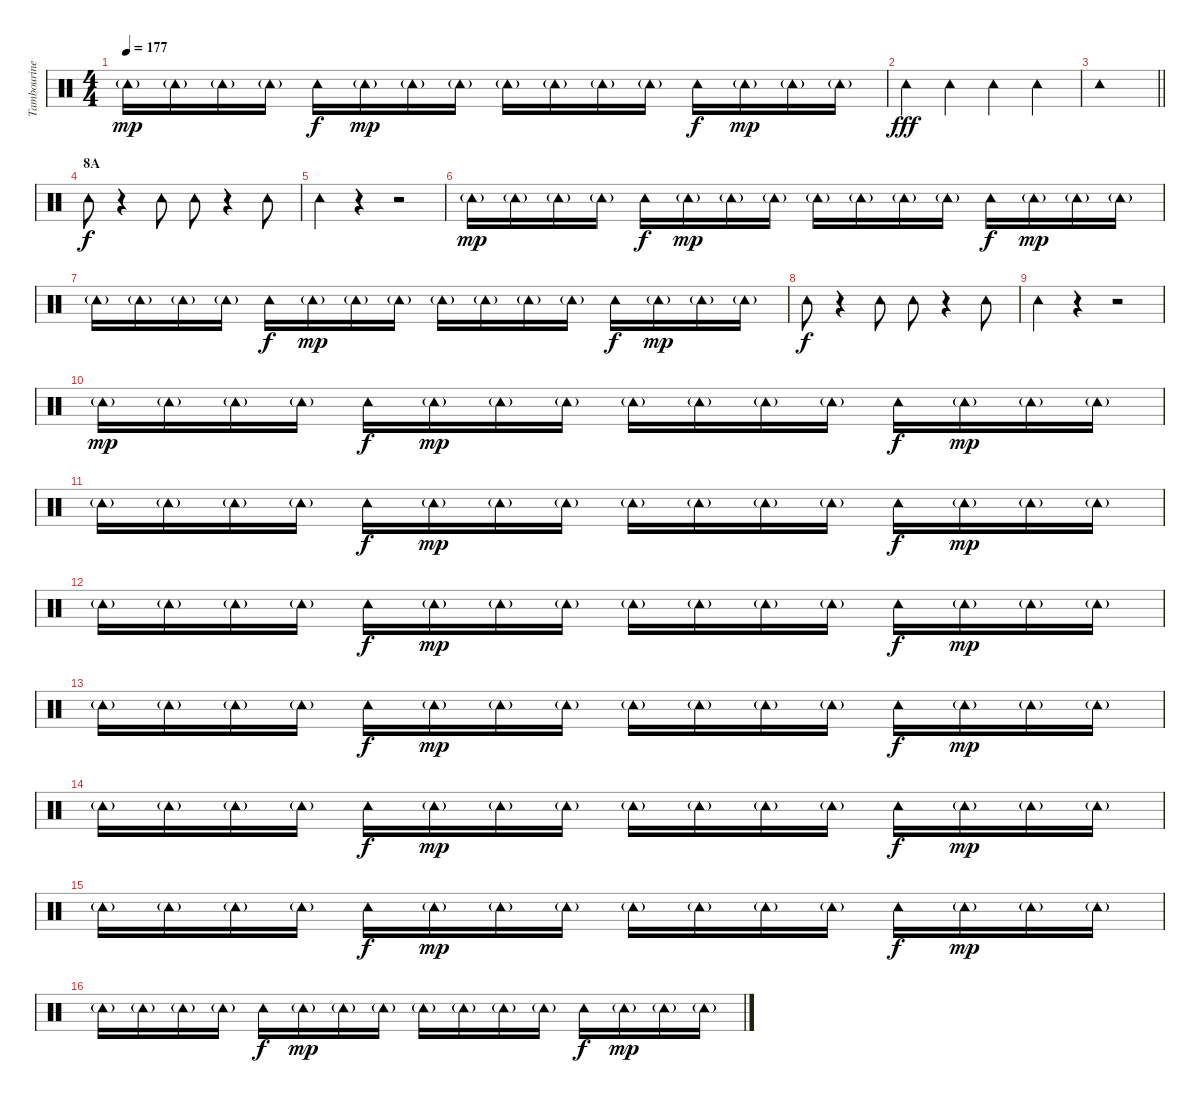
\track ("Tambourine" "Tambourine") {instrument percussion}
\staff {score}
\articulation defaults
\ts (4 4)
\tempo 177
\clef neutral
\ks c "Tambourine (hit)"{g}.16{dy mp} "Tambourine (hit)"{g}.16 "Tambourine (hit)"{g}.16 "Tambourine (hit)"{g}.16 "Tambourine (hit)".16{dy f} "Tambourine (hit)"{g}.16{dy mp} "Tambourine (hit)"{g}.16 "Tambourine (hit)"{g}.16 "Tambourine (hit)"{g}.16 "Tambourine (hit)"{g}.16 "Tambourine (hit)"{g}.16 "Tambourine (hit)"{g}.16 "Tambourine (hit)".16{dy f} "Tambourine (hit)"{g}.16{dy mp} "Tambourine (hit)"{g}.16 "Tambourine (hit)"{g}.16
|
"Tambourine (hit)".4{dy fff} "Tambourine (hit)".4 "Tambourine (hit)".4 "Tambourine (hit)".4 |
\barLineRight lightlight "Tambourine (hit)".1
|
\section ("" "8A")
"Tambourine (hit)".8{dy f} r.4 "Tambourine (hit)".8 "Tambourine (hit)".8 r.4 "Tambourine (hit)".8 |
"Tambourine (hit)".4 r.4 r.2 |
"Tambourine (hit)"{g}.16{dy mp} "Tambourine (hit)"{g}.16 "Tambourine (hit)"{g}.16 "Tambourine (hit)"{g}.16 "Tambourine (hit)".16{dy f} "Tambourine (hit)"{g}.16{dy mp} "Tambourine (hit)"{g}.16 "Tambourine (hit)"{g}.16 "Tambourine (hit)"{g}.16 "Tambourine (hit)"{g}.16 "Tambourine (hit)"{g}.16 "Tambourine (hit)"{g}.16 "Tambourine (hit)".16{dy f} "Tambourine (hit)"{g}.16{dy mp} "Tambourine (hit)"{g}.16 "Tambourine (hit)"{g}.16 |
"Tambourine (hit)"{g}.16 "Tambourine (hit)"{g}.16 "Tambourine (hit)"{g}.16 "Tambourine (hit)"{g}.16 "Tambourine (hit)".16{dy f} "Tambourine (hit)"{g}.16{dy mp} "Tambourine (hit)"{g}.16 "Tambourine (hit)"{g}.16 "Tambourine (hit)"{g}.16 "Tambourine (hit)"{g}.16 "Tambourine (hit)"{g}.16 "Tambourine (hit)"{g}.16 "Tambourine (hit)".16{dy f} "Tambourine (hit)"{g}.16{dy mp} "Tambourine (hit)"{g}.16 "Tambourine (hit)"{g}.16 |
"Tambourine (hit)".8{dy f} r.4 "Tambourine (hit)".8 "Tambourine (hit)".8 r.4 "Tambourine (hit)".8 |
"Tambourine (hit)".4 r.4 r.2 |
"Tambourine (hit)"{g}.16{dy mp} "Tambourine (hit)"{g}.16 "Tambourine (hit)"{g}.16 "Tambourine (hit)"{g}.16 "Tambourine (hit)".16{dy f} "Tambourine (hit)"{g}.16{dy mp} "Tambourine (hit)"{g}.16 "Tambourine (hit)"{g}.16 "Tambourine (hit)"{g}.16 "Tambourine (hit)"{g}.16 "Tambourine (hit)"{g}.16 "Tambourine (hit)"{g}.16 "Tambourine (hit)".16{dy f} "Tambourine (hit)"{g}.16{dy mp} "Tambourine (hit)"{g}.16 "Tambourine (hit)"{g}.16 |
"Tambourine (hit)"{g}.16 "Tambourine (hit)"{g}.16 "Tambourine (hit)"{g}.16 "Tambourine (hit)"{g}.16 "Tambourine (hit)".16{dy f} "Tambourine (hit)"{g}.16{dy mp} "Tambourine (hit)"{g}.16 "Tambourine (hit)"{g}.16 "Tambourine (hit)"{g}.16 "Tambourine (hit)"{g}.16 "Tambourine (hit)"{g}.16 "Tambourine (hit)"{g}.16 "Tambourine (hit)".16{dy f} "Tambourine (hit)"{g}.16{dy mp} "Tambourine (hit)"{g}.16 "Tambourine (hit)"{g}.16 |
"Tambourine (hit)"{g}.16 "Tambourine (hit)"{g}.16 "Tambourine (hit)"{g}.16 "Tambourine (hit)"{g}.16 "Tambourine (hit)".16{dy f} "Tambourine (hit)"{g}.16{dy mp} "Tambourine (hit)"{g}.16 "Tambourine (hit)"{g}.16 "Tambourine (hit)"{g}.16 "Tambourine (hit)"{g}.16 "Tambourine (hit)"{g}.16 "Tambourine (hit)"{g}.16 "Tambourine (hit)".16{dy f} "Tambourine (hit)"{g}.16{dy mp} "Tambourine (hit)"{g}.16 "Tambourine (hit)"{g}.16 |
"Tambourine (hit)"{g}.16 "Tambourine (hit)"{g}.16 "Tambourine (hit)"{g}.16 "Tambourine (hit)"{g}.16 "Tambourine (hit)".16{dy f} "Tambourine (hit)"{g}.16{dy mp} "Tambourine (hit)"{g}.16 "Tambourine (hit)"{g}.16 "Tambourine (hit)"{g}.16 "Tambourine (hit)"{g}.16 "Tambourine (hit)"{g}.16 "Tambourine (hit)"{g}.16 "Tambourine (hit)".16{dy f} "Tambourine (hit)"{g}.16{dy mp} "Tambourine (hit)"{g}.16 "Tambourine (hit)"{g}.16 |
"Tambourine (hit)"{g}.16 "Tambourine (hit)"{g}.16 "Tambourine (hit)"{g}.16 "Tambourine (hit)"{g}.16 "Tambourine (hit)".16{dy f} "Tambourine (hit)"{g}.16{dy mp} "Tambourine (hit)"{g}.16 "Tambourine (hit)"{g}.16 "Tambourine (hit)"{g}.16 "Tambourine (hit)"{g}.16 "Tambourine (hit)"{g}.16 "Tambourine (hit)"{g}.16 "Tambourine (hit)".16{dy f} "Tambourine (hit)"{g}.16{dy mp} "Tambourine (hit)"{g}.16 "Tambourine (hit)"{g}.16 |
"Tambourine (hit)"{g}.16 "Tambourine (hit)"{g}.16 "Tambourine (hit)"{g}.16 "Tambourine (hit)"{g}.16 "Tambourine (hit)".16{dy f} "Tambourine (hit)"{g}.16{dy mp} "Tambourine (hit)"{g}.16 "Tambourine (hit)"{g}.16 "Tambourine (hit)"{g}.16 "Tambourine (hit)"{g}.16 "Tambourine (hit)"{g}.16 "Tambourine (hit)"{g}.16 "Tambourine (hit)".16{dy f} "Tambourine (hit)"{g}.16{dy mp} "Tambourine (hit)"{g}.16 "Tambourine (hit)"{g}.16 |
"Tambourine (hit)"{g}.16 "Tambourine (hit)"{g}.16 "Tambourine (hit)"{g}.16 "Tambourine (hit)"{g}.16 "Tambourine (hit)".16{dy f} "Tambourine (hit)"{g}.16{dy mp} "Tambourine (hit)"{g}.16 "Tambourine (hit)"{g}.16 "Tambourine (hit)"{g}.16 "Tambourine (hit)"{g}.16 "Tambourine (hit)"{g}.16 "Tambourine (hit)"{g}.16 "Tambourine (hit)".16{dy f} "Tambourine (hit)"{g}.16{dy mp} "Tambourine (hit)"{g}.16 "Tambourine (hit)"{g}.16
